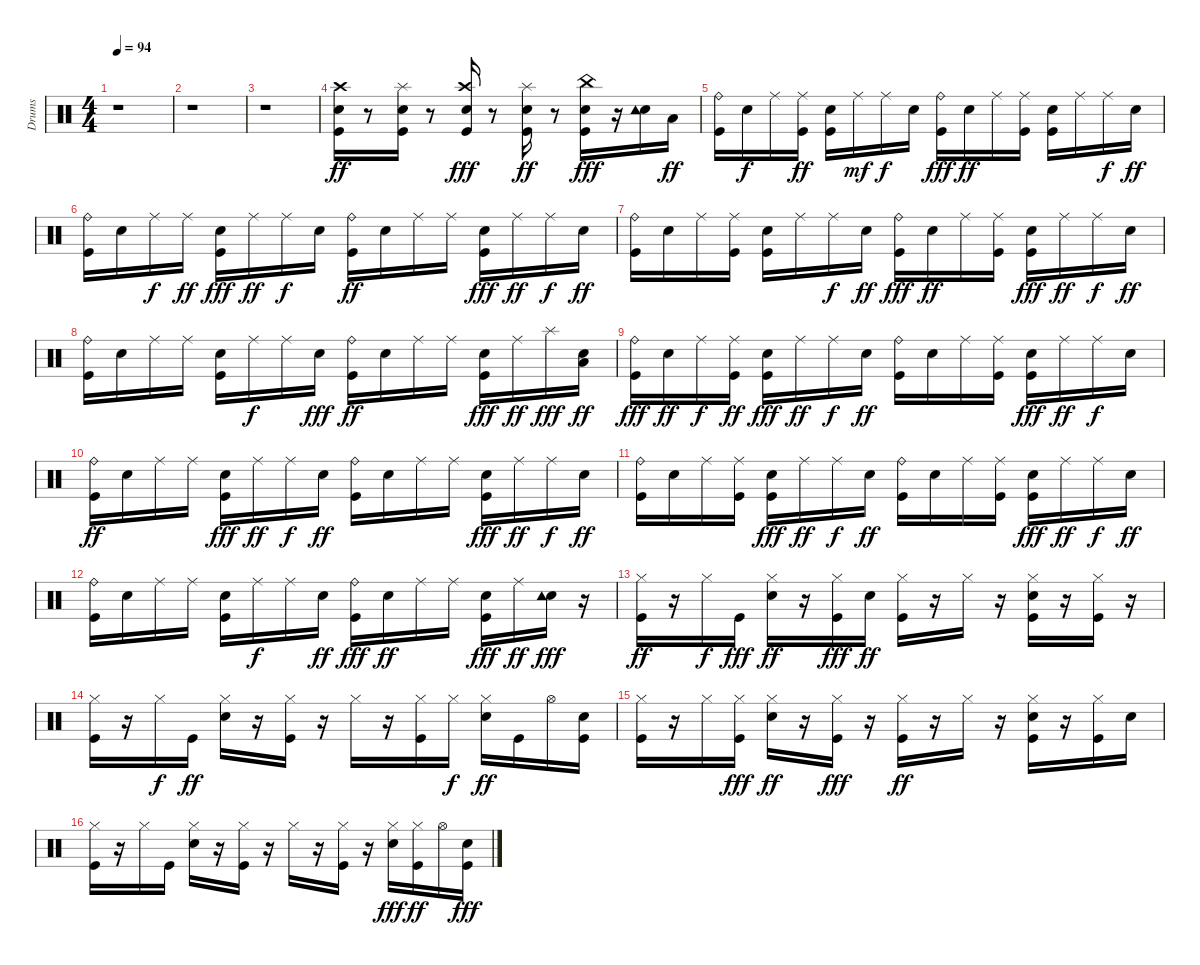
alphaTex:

\track ("Drums" "Drums") {instrument percussion}
\staff {score}
\articulation defaults
\ts (4 4)
\tempo 94
\clef neutral
\ks c
r.1{dy ff} |
r.1 |
r.1 |
("Snare (hit) 2" "Crash high (hit)" "Kick (hit)").16 r.8 ("Kick (hit)" "Snare (hit) 2" "Splash (hit)").16 r.8 ("Kick (hit)" "Snare (hit) 2" "Crash high (hit)").16{dy fff} r.8 ("Splash (hit)" "Snare (hit) 2" "Kick (hit)").16{dy ff} r.8 ("China (hit)" "Kick (hit)" "Snare (hit) 2").16{dy fff} r.16 ("Snare (hit) 2" "Tambourine (hit)").16 "Low Floor Tom (hit)".16{dy ff} |
("Ride (bell)" "Kick (hit)").16 "Snare (hit) 2".16{dy f} "Ride (middle)".16 ("Ride (middle)" "Kick (hit)").16{dy ff} ("Kick (hit)" "Snare (hit) 2").16 "Ride (middle)".16{dy mf} "Ride (middle)".16{dy f} "Snare (hit) 2".16 ("Ride (bell)" "Kick (hit)").16{dy fff} "Snare (hit) 2".16{dy ff} "Ride (middle)".16 ("Ride (middle)" "Kick (hit)").16 ("Kick (hit)" "Snare (hit) 2").16 "Ride (middle)".16 "Ride (middle)".16{dy f} "Snare (hit) 2".16{dy ff} |
("Ride (bell)" "Kick (hit)").16 "Snare (hit) 2".16 "Ride (middle)".16{dy f} "Ride (middle)".16{dy ff} ("Kick (hit)" "Snare (hit) 2").16{dy fff} "Ride (middle)".16{dy ff} "Ride (middle)".16{dy f} "Snare (hit) 2".16 ("Ride (bell)" "Kick (hit)").16{dy ff} "Snare (hit) 2".16 "Ride (middle)".16 "Ride (middle)".16 ("Kick (hit)" "Snare (hit) 2").16{dy fff} "Ride (middle)".16{dy ff} "Ride (middle)".16{dy f} "Snare (hit) 2".16{dy ff} |
("Ride (bell)" "Kick (hit)").16 "Snare (hit) 2".16 "Ride (middle)".16 ("Ride (middle)" "Kick (hit)").16 ("Kick (hit)" "Snare (hit) 2").16 "Ride (middle)".16 "Ride (middle)".16{dy f} "Snare (hit) 2".16{dy ff} ("Ride (bell)" "Kick (hit)").16{dy fff} "Snare (hit) 2".16{dy ff} "Ride (middle)".16 ("Ride (middle)" "Kick (hit)").16 ("Kick (hit)" "Snare (hit) 2").16{dy fff} "Ride (middle)".16{dy ff} "Ride (middle)".16{dy f} "Snare (hit) 2".16{dy ff} |
("Ride (bell)" "Kick (hit)").16 "Snare (hit) 2".16 "Ride (middle)".16 "Ride (middle)".16 ("Kick (hit)" "Snare (hit) 2").16 "Ride (middle)".16{dy f} "Ride (middle)".16 "Snare (hit) 2".16{dy fff} ("Ride (bell)" "Kick (hit)").16{dy ff} "Snare (hit) 2".16 "Ride (middle)".16 "Ride (middle)".16 ("Kick (hit)" "Snare (hit) 2").16{dy fff} "Ride (middle)".16{dy ff} "Splash (hit)".16{dy fff} ("Low Floor Tom (hit)" "Snare (hit) 2").16{dy ff} |
("Ride (bell)" "Kick (hit)").16{dy fff} "Snare (hit) 2".16{dy ff} "Ride (middle)".16{dy f} ("Ride (middle)" "Kick (hit)").16{dy ff} ("Kick (hit)" "Snare (hit) 2").16{dy fff} "Ride (middle)".16{dy ff} "Ride (middle)".16{dy f} "Snare (hit) 2".16{dy ff} ("Ride (bell)" "Kick (hit)").16 "Snare (hit) 2".16 "Ride (middle)".16 ("Ride (middle)" "Kick (hit)").16 ("Kick (hit)" "Snare (hit) 2").16{dy fff} "Ride (middle)".16{dy ff} "Ride (middle)".16{dy f} "Snare (hit) 2".16 |
("Ride (bell)" "Kick (hit)").16{dy ff} "Snare (hit) 2".16 "Ride (middle)".16 "Ride (middle)".16 ("Kick (hit)" "Snare (hit) 2").16{dy fff} "Ride (middle)".16{dy ff} "Ride (middle)".16{dy f} "Snare (hit) 2".16{dy ff} ("Ride (bell)" "Kick (hit)").16 "Snare (hit) 2".16 "Ride (middle)".16 "Ride (middle)".16 ("Kick (hit)" "Snare (hit) 2").16{dy fff} "Ride (middle)".16{dy ff} "Ride (middle)".16{dy f} "Snare (hit) 2".16{dy ff} |
("Ride (bell)" "Kick (hit)").16 "Snare (hit) 2".16 "Ride (middle)".16 ("Ride (middle)" "Kick (hit)").16 ("Kick (hit)" "Snare (hit) 2").16{dy fff} "Ride (middle)".16{dy ff} "Ride (middle)".16{dy f} "Snare (hit) 2".16{dy ff} ("Ride (bell)" "Kick (hit)").16 "Snare (hit) 2".16 "Ride (middle)".16 ("Ride (middle)" "Kick (hit)").16 ("Kick (hit)" "Snare (hit) 2").16{dy fff} "Ride (middle)".16{dy ff} "Ride (middle)".16{dy f} "Snare (hit) 2".16{dy ff} |
("Ride (bell)" "Kick (hit)").16 "Snare (hit) 2".16 "Ride (middle)".16 "Ride (middle)".16 ("Kick (hit)" "Snare (hit) 2").16 "Ride (middle)".16{dy f} "Ride (middle)".16 "Snare (hit) 2".16{dy ff} ("Ride (bell)" "Kick (hit)").16{dy fff} "Snare (hit) 2".16{dy ff} "Ride (middle)".16 "Ride (middle)".16 ("Kick (hit)" "Snare (hit) 2").16{dy fff} "Ride (middle)".16{dy ff} ("Snare (hit) 2" "Tambourine (hit)").16{dy fff} r.16 |
("Hi-Hat (closed)" "Kick (hit)").16{dy ff} r.16 "Hi-Hat (closed)".16{dy f} "Kick (hit)".16{dy fff} ("Snare (hit) 2" "Hi-Hat (closed)").16{dy ff} r.16 ("Hi-Hat (closed)" "Kick (hit)").16{dy fff} "Snare (hit) 2".16{dy ff} ("Hi-Hat (closed)" "Kick (hit)").16 r.16 "Hi-Hat (closed)".16 r.16 ("Snare (hit) 2" "Hi-Hat (closed)" "Kick (hit)").16 r.16 ("Hi-Hat (closed)" "Kick (hit)").16 r.16 |
("Hi-Hat (closed)" "Kick (hit)").16 r.16 "Hi-Hat (closed)".16{dy f} "Kick (hit)".16{dy ff} ("Snare (hit) 2" "Hi-Hat (closed)").16 r.16 ("Hi-Hat (closed)" "Kick (hit)").16 r.16 "Hi-Hat (closed)".16 r.16 ("Hi-Hat (closed)" "Kick (hit)").16 "Hi-Hat (closed)".16{dy f} ("Snare (hit) 2" "Hi-Hat (closed)").16{dy ff} "Kick (hit)".16 "Hi-Hat (open)".16 ("Kick (hit)" "Snare (hit) 2").16 |
("Hi-Hat (closed)" "Kick (hit)").16 r.16 "Hi-Hat (closed)".16 ("Hi-Hat (closed)" "Kick (hit)").16{dy fff} ("Snare (hit) 2" "Hi-Hat (closed)").16{dy ff} r.16 ("Hi-Hat (closed)" "Kick (hit)").16{dy fff} r.16 ("Hi-Hat (closed)" "Kick (hit)").16{dy ff} r.16 "Hi-Hat (closed)".16 r.16 ("Snare (hit) 2" "Hi-Hat (closed)" "Kick (hit)").16 r.16 ("Hi-Hat (closed)" "Kick (hit)").16 "Snare (hit) 2".16 |
("Hi-Hat (closed)" "Kick (hit)").16 r.16 "Hi-Hat (closed)".16 "Kick (hit)".16 ("Hi-Hat (closed)" "Snare (hit) 2").16 r.16 ("Hi-Hat (closed)" "Kick (hit)").16 r.16 "Hi-Hat (closed)".16 r.16 ("Hi-Hat (closed)" "Kick (hit)").16 r.16 ("Hi-Hat (closed)" "Snare (hit) 2").16{dy fff} ("Hi-Hat (closed)" "Kick (hit)").16{dy ff} "Hi-Hat (open)".16 ("Snare (hit) 2" "Kick (hit)").16{dy fff}
